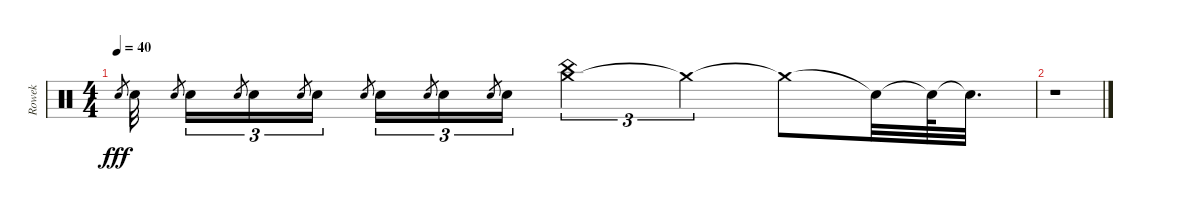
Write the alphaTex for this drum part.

\track ("Rowek" "Rowek") {instrument percussion}
\staff {score}
\articulation defaults
\ts (4 4)
\tempo 40
\clef neutral
\ks c "Electric Snare (hit)".8{gr dy fff} "Electric Snare (hit)".32 "Electric Snare (hit)".8{gr beam splitsecondary} "Electric Snare (hit)".16{tu (3 2)} "Electric Snare (hit)".8{gr} "Electric Snare (hit)".16{tu (3 2)} "Electric Snare (hit)".8{gr} "Electric Snare (hit)".16{tu (3 2)} "Electric Snare (hit)".8{gr beam splitsecondary} "Electric Snare (hit)".16{tu (3 2)} "Electric Snare (hit)".8{gr} "Electric Snare (hit)".16{tu (3 2)} "Electric Snare (hit)".8{gr} "Electric Snare (hit)".16{tu (3 2)}
("Crash medium (hit)" "China (hit)").2{tu (3 2)} "Crash medium (hit)"{t}.4{tu (3 2)} "Crash medium (hit)"{t}.8 "Snare (hit)"{t}.32 "Snare (hit)"{t}.64 "Snare (hit)"{t}.32{d} |
r.1
